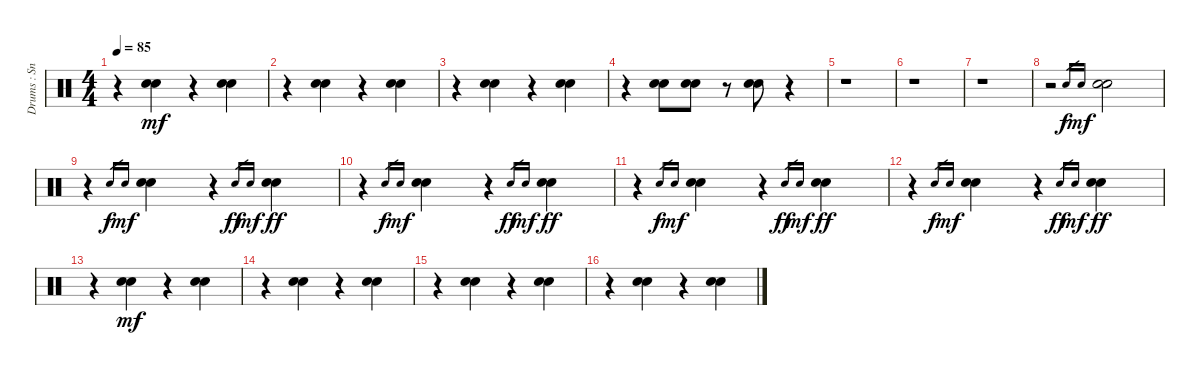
\track ("Drums : Snare" "Drums : Sn") {instrument percussion}
\staff {score}
\articulation defaults
\ts (4 4)
\tempo 85
\clef neutral
\ks c
r.4{dy mf} ("Electric Snare (hit)" "Snare (hit) 2").4 r.4 ("Electric Snare (hit)" "Snare (hit) 2").4 |
r.4 ("Electric Snare (hit)" "Snare (hit) 2").4 r.4 ("Electric Snare (hit)" "Snare (hit) 2").4 |
r.4 ("Electric Snare (hit)" "Snare (hit) 2").4 r.4 ("Electric Snare (hit)" "Snare (hit) 2").4 |
r.4 ("Electric Snare (hit)" "Snare (hit) 2").8 ("Electric Snare (hit)" "Snare (hit) 2").8 r.8 ("Electric Snare (hit)" "Snare (hit) 2").8 r.4 |
r.1 |
r.1 |
r.1 |
r.2 "Electric Snare (hit)".16{gr dy f} "Snare (hit) 2".16{gr dy mf} ("Electric Snare (hit)" "Snare (hit) 2").2 |
r.4 "Electric Snare (hit)".16{gr dy f} "Snare (hit) 2".16{gr dy mf} ("Electric Snare (hit)" "Snare (hit) 2").4 r.4 "Electric Snare (hit)".16{gr dy ff} "Snare (hit) 2".16{gr dy mf} ("Electric Snare (hit)" "Snare (hit) 2").4{dy ff} |
r.4 "Electric Snare (hit)".16{gr dy f} "Snare (hit) 2".16{gr dy mf} ("Electric Snare (hit)" "Snare (hit) 2").4 r.4 "Electric Snare (hit)".16{gr dy ff} "Snare (hit) 2".16{gr dy mf} ("Electric Snare (hit)" "Snare (hit) 2").4{dy ff} |
r.4 "Electric Snare (hit)".16{gr dy f} "Snare (hit) 2".16{gr dy mf} ("Electric Snare (hit)" "Snare (hit) 2").4 r.4 "Electric Snare (hit)".16{gr dy ff} "Snare (hit) 2".16{gr dy mf} ("Electric Snare (hit)" "Snare (hit) 2").4{dy ff} |
r.4 "Electric Snare (hit)".16{gr dy f} "Snare (hit) 2".16{gr dy mf} ("Electric Snare (hit)" "Snare (hit) 2").4 r.4 "Electric Snare (hit)".16{gr dy ff} "Snare (hit) 2".16{gr dy mf} ("Electric Snare (hit)" "Snare (hit) 2").4{dy ff} |
r.4 ("Electric Snare (hit)" "Snare (hit) 2").4{dy mf} r.4 ("Electric Snare (hit)" "Snare (hit) 2").4 |
r.4 ("Electric Snare (hit)" "Snare (hit) 2").4 r.4 ("Electric Snare (hit)" "Snare (hit) 2").4 |
r.4 ("Electric Snare (hit)" "Snare (hit) 2").4 r.4 ("Electric Snare (hit)" "Snare (hit) 2").4 |
r.4 ("Electric Snare (hit)" "Snare (hit) 2").4 r.4 ("Electric Snare (hit)" "Snare (hit) 2").4
